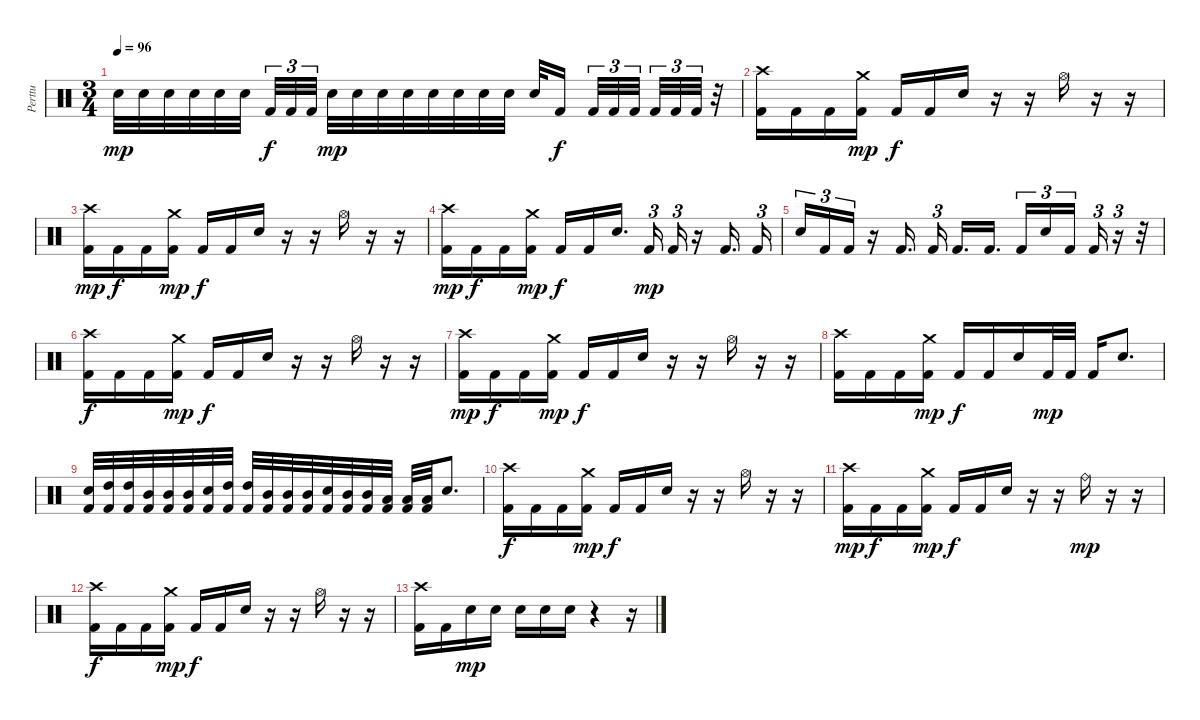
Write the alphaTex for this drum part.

\track ("Perttu" "Perttu") {instrument percussion}
\staff {score}
\articulation defaults
\ts (3 4)
\tempo 96
\clef neutral
\ks c "Electric Snare (hit)".32{dy mp} "Electric Snare (hit)".32 "Electric Snare (hit)".32 "Electric Snare (hit)".32 "Electric Snare (hit)".32 "Electric Snare (hit)".32 "Kick (hit) 2".32{tu (3 2) dy f} "Kick (hit) 2".32{tu (3 2)} "Kick (hit) 2".32{tu (3 2)} "Electric Snare (hit)".32{dy mp} "Electric Snare (hit)".32 "Electric Snare (hit)".32 "Electric Snare (hit)".32 "Electric Snare (hit)".32 "Electric Snare (hit)".32 "Electric Snare (hit)".32 "Electric Snare (hit)".32 "Electric Snare (hit)".32 "Kick (hit) 2".16{dy f} "Kick (hit) 2".32{tu (3 2)} "Kick (hit) 2".32{tu (3 2)} "Kick (hit) 2".32{tu (3 2)} "Kick (hit) 2".32{tu (3 2)} "Kick (hit) 2".32{tu (3 2)} "Kick (hit) 2".32{tu (3 2)}
r.32 |
("Crash high (hit)" "Kick (hit) 2").16 "Kick (hit) 2".16 "Kick (hit) 2".16 ("Crash medium (hit)" "Kick (hit) 2").16{dy mp} "Kick (hit) 2".16{dy f} "Kick (hit) 2".16 "Electric Snare (hit)".16 r.16 r.16 "Hi-Hat (open)".16 r.16 r.16 |
("Crash high (hit)" "Kick (hit) 2").16{dy mp} "Kick (hit) 2".16{dy f} "Kick (hit) 2".16 ("Crash medium (hit)" "Kick (hit) 2").16{dy mp} "Kick (hit) 2".16{dy f} "Kick (hit) 2".16 "Electric Snare (hit)".16 r.16 r.16 "Hi-Hat (open)".16 r.16 r.16 |
("Crash high (hit)" "Kick (hit) 2").16{dy mp} "Kick (hit) 2".16{dy f} "Kick (hit) 2".16 ("Crash medium (hit)" "Kick (hit) 2").16{dy mp} "Kick (hit) 2".16{dy f} "Kick (hit) 2".16 "Electric Snare (hit)".16{d} "Kick (hit) 2".16{tu (3 2) dy mp} "Kick (hit) 2".16{tu (3 2)} r.16 "Kick (hit) 2".16{d} "Kick (hit) 2".16{tu (3 2)} |
"Electric Snare (hit)".16{tu (3 2)} "Kick (hit) 2".16{tu (3 2)} "Kick (hit) 2".16{tu (3 2)} r.16 "Kick (hit) 2".16{d} "Kick (hit) 2".16{tu (3 2)} "Kick (hit) 2".16{d} "Kick (hit) 2".16{d} "Kick (hit) 2".16{tu (3 2)} "Electric Snare (hit)".16{tu (3 2)} "Kick (hit) 2".16{tu (3 2)} "Kick (hit) 2".16{tu (3 2)} r.16{tu (3 2)} r.32 |
("Crash high (hit)" "Kick (hit) 2").16{dy f} "Kick (hit) 2".16 "Kick (hit) 2".16 ("Crash medium (hit)" "Kick (hit) 2").16{dy mp} "Kick (hit) 2".16{dy f} "Kick (hit) 2".16 "Electric Snare (hit)".16 r.16 r.16 "Hi-Hat (open)".16 r.16 r.16 |
("Crash high (hit)" "Kick (hit) 2").16{dy mp} "Kick (hit) 2".16{dy f} "Kick (hit) 2".16 ("Crash medium (hit)" "Kick (hit) 2").16{dy mp} "Kick (hit) 2".16{dy f} "Kick (hit) 2".16 "Electric Snare (hit)".16 r.16 r.16 "Hi-Hat (open)".16 r.16 r.16 |
("Crash high (hit)" "Kick (hit) 2").16 "Kick (hit) 2".16 "Kick (hit) 2".16 ("Crash medium (hit)" "Kick (hit) 2").16{dy mp} "Kick (hit) 2".16{dy f} "Kick (hit) 2".16 "Electric Snare (hit)".16 "Kick (hit) 2".32{dy mp} "Kick (hit) 2".32 "Kick (hit) 2".16 "Electric Snare (hit)".8{d} |
("Electric Snare (hit)" "Kick (hit) 2").32 ("High Tom (hit)" "Kick (hit) 2").32 ("High Tom (hit)" "Kick (hit) 2").32 ("Mid Tom (hit)" "Kick (hit) 2").32 ("Mid Tom (hit)" "Kick (hit) 2").32 ("Mid Tom (hit)" "Kick (hit) 2").32 ("Electric Snare (hit)" "Kick (hit) 2").32 ("High Tom (hit)" "Kick (hit) 2").32 ("High Tom (hit)" "Kick (hit) 2").32 ("Mid Tom (hit)" "Kick (hit) 2").32 ("Mid Tom (hit)" "Kick (hit) 2").32 ("Mid Tom (hit)" "Kick (hit) 2").32 ("Electric Snare (hit)" "Kick (hit) 2").32 ("Mid Tom (hit)" "Kick (hit) 2").32 ("Mid Tom (hit)" "Kick (hit) 2").32 ("Low Tom (hit)" "Kick (hit) 2").32 ("Low Tom (hit)" "Kick (hit) 2").32 ("Low Tom (hit)" "Kick (hit) 2").32 "Electric Snare (hit)".8{d} |
("Crash high (hit)" "Kick (hit) 2").16{dy f} "Kick (hit) 2".16 "Kick (hit) 2".16 ("Crash medium (hit)" "Kick (hit) 2").16{dy mp} "Kick (hit) 2".16{dy f} "Kick (hit) 2".16 "Electric Snare (hit)".16 r.16 r.16 "Hi-Hat (open)".16 r.16 r.16 |
("Crash high (hit)" "Kick (hit) 2").16{dy mp} "Kick (hit) 2".16{dy f} "Kick (hit) 2".16 ("Crash medium (hit)" "Kick (hit) 2").16{dy mp} "Kick (hit) 2".16{dy f} "Kick (hit) 2".16 "Electric Snare (hit)".16 r.16 r.16 "Ride (bell)".16{dy mp} r.16 r.16 |
("Crash high (hit)" "Kick (hit) 2").16{dy f} "Kick (hit) 2".16 "Kick (hit) 2".16 ("Crash medium (hit)" "Kick (hit) 2").16{dy mp} "Kick (hit) 2".16{dy f} "Kick (hit) 2".16 "Electric Snare (hit)".16 r.16 r.16 "Hi-Hat (open)".16 r.16 r.16 |
("Crash high (hit)" "Kick (hit) 2").16 "Kick (hit) 2".16 "Electric Snare (hit)".16{dy mp} "Electric Snare (hit)".16 "Electric Snare (hit)".16 "Electric Snare (hit)".16 "Electric Snare (hit)".16 r.4 r.16
